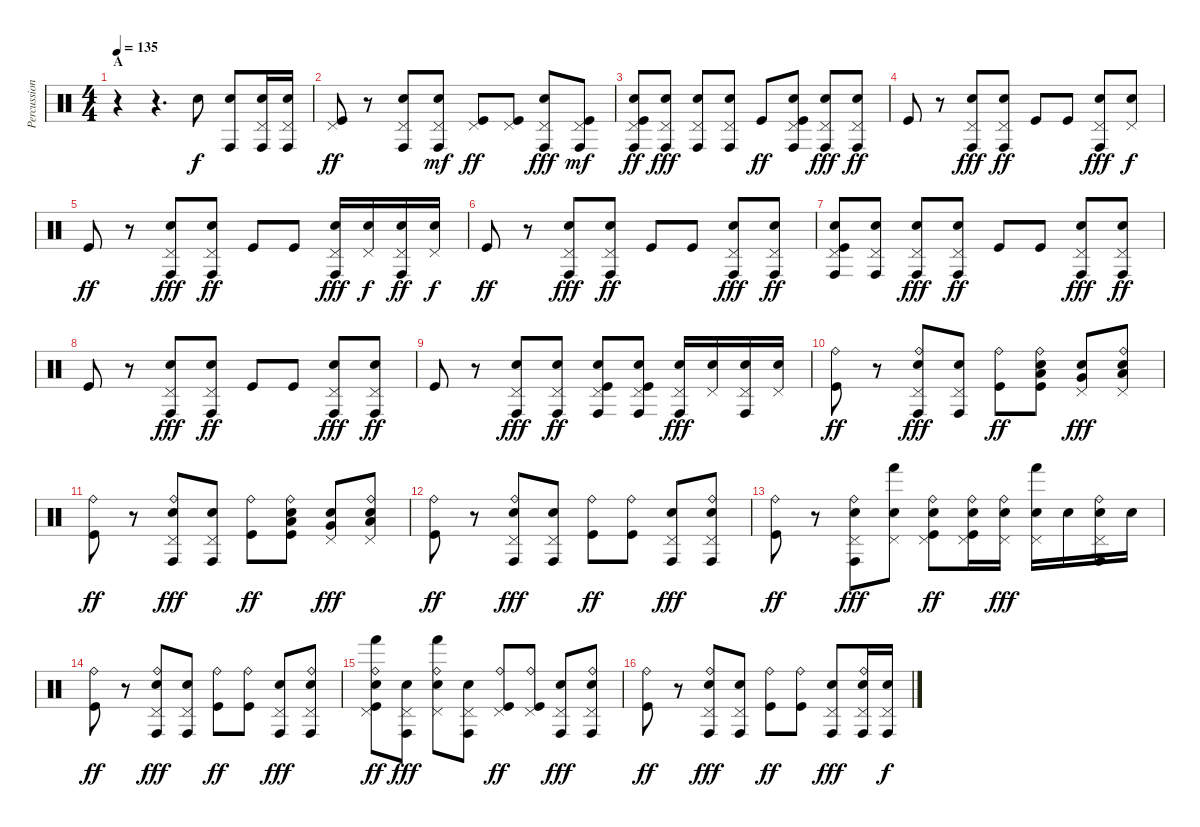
\track ("Percussion" "Percussion") {instrument percussion}
\staff {score}
\articulation defaults
\ts (4 4)
\section ("" "A")
\tempo 135
\clef neutral
\ks c
r.4{dy f} r.4{d} "Electric Snare (hit)".8 ("Conga high (hit)" "Electric Snare (hit)").8 ("Pedal Hi-Hat (hit)" "Conga high (hit)" "Electric Snare (hit)").16 ("Pedal Hi-Hat (hit)" "Conga high (hit)" "Electric Snare (hit)").16 |
("Pedal Hi-Hat (hit)" "Kick (hit)").8{dy ff} r.8 ("Pedal Hi-Hat (hit)" "Conga high (hit)" "Electric Snare (hit)").8 ("Pedal Hi-Hat (hit)" "Conga high (hit)" "Electric Snare (hit)").8{dy mf} ("Pedal Hi-Hat (hit)" "Kick (hit)").8{dy ff} ("Pedal Hi-Hat (hit)" "Kick (hit)").8 ("Pedal Hi-Hat (hit)" "Conga high (hit)" "Electric Snare (hit)").8{dy fff} ("Pedal Hi-Hat (hit)" "Conga high (hit)" "Kick (hit)").8{dy mf} |
("Pedal Hi-Hat (hit)" "Conga high (hit)" "Electric Snare (hit)" "Kick (hit)").8{dy ff} ("Pedal Hi-Hat (hit)" "Conga high (hit)" "Electric Snare (hit)").8{dy fff} ("Pedal Hi-Hat (hit)" "Conga high (hit)" "Electric Snare (hit)").8 ("Pedal Hi-Hat (hit)" "Conga high (hit)" "Electric Snare (hit)").8 "Kick (hit)".8{dy ff} ("Pedal Hi-Hat (hit)" "Conga high (hit)" "Electric Snare (hit)" "Kick (hit)").8 ("Pedal Hi-Hat (hit)" "Conga high (hit)" "Electric Snare (hit)").8{dy fff} ("Pedal Hi-Hat (hit)" "Conga high (hit)" "Electric Snare (hit)").8{dy ff} |
"Kick (hit)".8 r.8 ("Pedal Hi-Hat (hit)" "Conga high (hit)" "Electric Snare (hit)").8{dy fff} ("Pedal Hi-Hat (hit)" "Conga high (hit)" "Electric Snare (hit)").8{dy ff} "Kick (hit)".8 "Kick (hit)".8 ("Pedal Hi-Hat (hit)" "Conga high (hit)" "Electric Snare (hit)").8{dy fff} ("Pedal Hi-Hat (hit)" "Electric Snare (hit)").8{dy f} |
"Kick (hit)".8{dy ff} r.8 ("Pedal Hi-Hat (hit)" "Conga high (hit)" "Electric Snare (hit)").8{dy fff} ("Pedal Hi-Hat (hit)" "Conga high (hit)" "Electric Snare (hit)").8{dy ff} "Kick (hit)".8 "Kick (hit)".8 ("Pedal Hi-Hat (hit)" "Conga high (hit)" "Electric Snare (hit)").16{dy fff} ("Pedal Hi-Hat (hit)" "Electric Snare (hit)").16{dy f} ("Pedal Hi-Hat (hit)" "Conga high (hit)" "Electric Snare (hit)").16{dy ff} ("Pedal Hi-Hat (hit)" "Electric Snare (hit)").16{dy f} |
"Kick (hit)".8{dy ff} r.8 ("Pedal Hi-Hat (hit)" "Conga high (hit)" "Electric Snare (hit)").8{dy fff} ("Pedal Hi-Hat (hit)" "Conga high (hit)" "Electric Snare (hit)").8{dy ff} "Kick (hit)".8 "Kick (hit)".8 ("Pedal Hi-Hat (hit)" "Conga high (hit)" "Electric Snare (hit)").8{dy fff} ("Pedal Hi-Hat (hit)" "Conga high (hit)" "Electric Snare (hit)").8{dy ff} |
("Pedal Hi-Hat (hit)" "Conga high (hit)" "Electric Snare (hit)" "Kick (hit)").8 ("Pedal Hi-Hat (hit)" "Conga high (hit)" "Electric Snare (hit)").8 ("Pedal Hi-Hat (hit)" "Conga high (hit)" "Electric Snare (hit)").8{dy fff} ("Pedal Hi-Hat (hit)" "Conga high (hit)" "Electric Snare (hit)").8{dy ff} "Kick (hit)".8 "Kick (hit)".8 ("Pedal Hi-Hat (hit)" "Conga high (hit)" "Electric Snare (hit)").8{dy fff} ("Pedal Hi-Hat (hit)" "Conga high (hit)" "Electric Snare (hit)").8{dy ff} |
"Kick (hit)".8 r.8 ("Pedal Hi-Hat (hit)" "Conga high (hit)" "Electric Snare (hit)").8{dy fff} ("Pedal Hi-Hat (hit)" "Conga high (hit)" "Electric Snare (hit)").8{dy ff} "Kick (hit)".8 "Kick (hit)".8 ("Pedal Hi-Hat (hit)" "Conga high (hit)" "Electric Snare (hit)").8{dy fff} ("Pedal Hi-Hat (hit)" "Conga high (hit)" "Electric Snare (hit)").8{dy ff} |
"Kick (hit)".8 r.8 ("Pedal Hi-Hat (hit)" "Conga high (hit)" "Electric Snare (hit)").8{dy fff} ("Pedal Hi-Hat (hit)" "Conga high (hit)" "Electric Snare (hit)").8{dy ff} ("Pedal Hi-Hat (hit)" "Conga high (hit)" "Electric Snare (hit)" "Kick (hit)").8 ("Pedal Hi-Hat (hit)" "Conga high (hit)" "Electric Snare (hit)" "Kick (hit)").8 ("Pedal Hi-Hat (hit)" "Conga high (hit)" "Electric Snare (hit)").16{dy fff} ("Pedal Hi-Hat (hit)" "Electric Snare (hit)").16 ("Pedal Hi-Hat (hit)" "Conga high (hit)" "Electric Snare (hit)").16 ("Pedal Hi-Hat (hit)" "Electric Snare (hit)").16 |
("Ride (bell)" "Kick (hit)").8{dy ff} r.8 ("Ride (bell)" "Pedal Hi-Hat (hit)" "Conga high (hit)" "Electric Snare (hit)").8{dy fff} ("Pedal Hi-Hat (hit)" "Conga high (hit)" "Electric Snare (hit)").8 ("Ride (bell)" "Kick (hit)").8{dy ff} ("Ride (bell)" "Low Tom (hit)" "Electric Snare (hit)" "Kick (hit)").8 ("Pedal Hi-Hat (hit)" "Very Low Tom (hit)" "Electric Snare (hit)").8{dy fff} ("Ride (bell)" "Pedal Hi-Hat (hit)" "Low Floor Tom (hit)" "Electric Snare (hit)").8 |
("Ride (bell)" "Kick (hit)").8{dy ff} r.8 ("Ride (bell)" "Pedal Hi-Hat (hit)" "Conga high (hit)" "Electric Snare (hit)").8{dy fff} ("Pedal Hi-Hat (hit)" "Conga high (hit)" "Electric Snare (hit)").8 ("Ride (bell)" "Kick (hit)").8{dy ff} ("Ride (bell)" "Low Tom (hit)" "Electric Snare (hit)" "Kick (hit)").8 ("Pedal Hi-Hat (hit)" "Very Low Tom (hit)" "Electric Snare (hit)").8{dy fff} ("Ride (bell)" "Pedal Hi-Hat (hit)" "Low Floor Tom (hit)" "Electric Snare (hit)").8 |
("Ride (bell)" "Kick (hit)").8{dy ff} r.8 ("Ride (bell)" "Pedal Hi-Hat (hit)" "Conga high (hit)" "Electric Snare (hit)").8{dy fff} ("Pedal Hi-Hat (hit)" "Conga high (hit)" "Electric Snare (hit)").8 ("Ride (bell)" "Kick (hit)").8{dy ff} ("Ride (bell)" "Kick (hit)").8 ("Pedal Hi-Hat (hit)" "Conga high (hit)" "Electric Snare (hit)").8{dy fff} ("Ride (bell)" "Pedal Hi-Hat (hit)" "Conga high (hit)" "Electric Snare (hit)").8 |
("Ride (bell)" "Kick (hit)").8{dy ff} r.8 ("Ride (bell)" "Pedal Hi-Hat (hit)" "Conga high (hit)" "Electric Snare (hit)").8{dy fff} ("Pedal Hi-Hat (hit)" "Hand (hit)" "Electric Snare (hit)").8 ("Ride (bell)" "Pedal Hi-Hat (hit)" "Electric Snare (hit)" "Kick (hit)").8{dy ff} ("Ride (bell)" "Pedal Hi-Hat (hit)" "Electric Snare (hit)" "Kick (hit)").16 ("Ride (bell)" "Pedal Hi-Hat (hit)" "Electric Snare (hit)").16{dy fff} ("Pedal Hi-Hat (hit)" "Hand (hit)" "Electric Snare (hit)").16 "Electric Snare (hit)".16 ("Ride (bell)" "Pedal Hi-Hat (hit)" "Conga high (hit)" "Electric Snare (hit)").16 "Electric Snare (hit)".16 |
("Ride (bell)" "Kick (hit)").8{dy ff} r.8 ("Ride (bell)" "Pedal Hi-Hat (hit)" "Conga high (hit)" "Electric Snare (hit)").8{dy fff} ("Pedal Hi-Hat (hit)" "Conga high (hit)" "Electric Snare (hit)").8 ("Ride (bell)" "Kick (hit)").8{dy ff} ("Ride (bell)" "Kick (hit)").8 ("Pedal Hi-Hat (hit)" "Conga high (hit)" "Electric Snare (hit)").8{dy fff} ("Ride (bell)" "Pedal Hi-Hat (hit)" "Conga high (hit)" "Electric Snare (hit)").8 |
("Ride (bell)" "Pedal Hi-Hat (hit)" "Hand (hit)" "Electric Snare (hit)" "Kick (hit)").8{dy ff} ("Pedal Hi-Hat (hit)" "Conga high (hit)" "Electric Snare (hit)").8{dy fff} ("Ride (bell)" "Pedal Hi-Hat (hit)" "Hand (hit)" "Electric Snare (hit)").8 ("Pedal Hi-Hat (hit)" "Conga high (hit)" "Electric Snare (hit)").8 ("Ride (bell)" "Pedal Hi-Hat (hit)" "Kick (hit)").8{dy ff} ("Ride (bell)" "Pedal Hi-Hat (hit)" "Kick (hit)").8 ("Pedal Hi-Hat (hit)" "Conga high (hit)" "Electric Snare (hit)").8{dy fff} ("Ride (bell)" "Pedal Hi-Hat (hit)" "Conga high (hit)" "Electric Snare (hit)").8 |
("Ride (bell)" "Kick (hit)").8{dy ff} r.8 ("Ride (bell)" "Pedal Hi-Hat (hit)" "Conga high (hit)" "Electric Snare (hit)").8{dy fff} ("Pedal Hi-Hat (hit)" "Conga high (hit)" "Electric Snare (hit)").8 ("Ride (bell)" "Kick (hit)").8{dy ff} ("Ride (bell)" "Kick (hit)").8 ("Pedal Hi-Hat (hit)" "Conga high (hit)" "Electric Snare (hit)").8{dy fff} ("Ride (bell)" "Pedal Hi-Hat (hit)" "Conga high (hit)" "Electric Snare (hit)").16 ("Pedal Hi-Hat (hit)" "Conga high (hit)" "Electric Snare (hit)").16{dy f}
